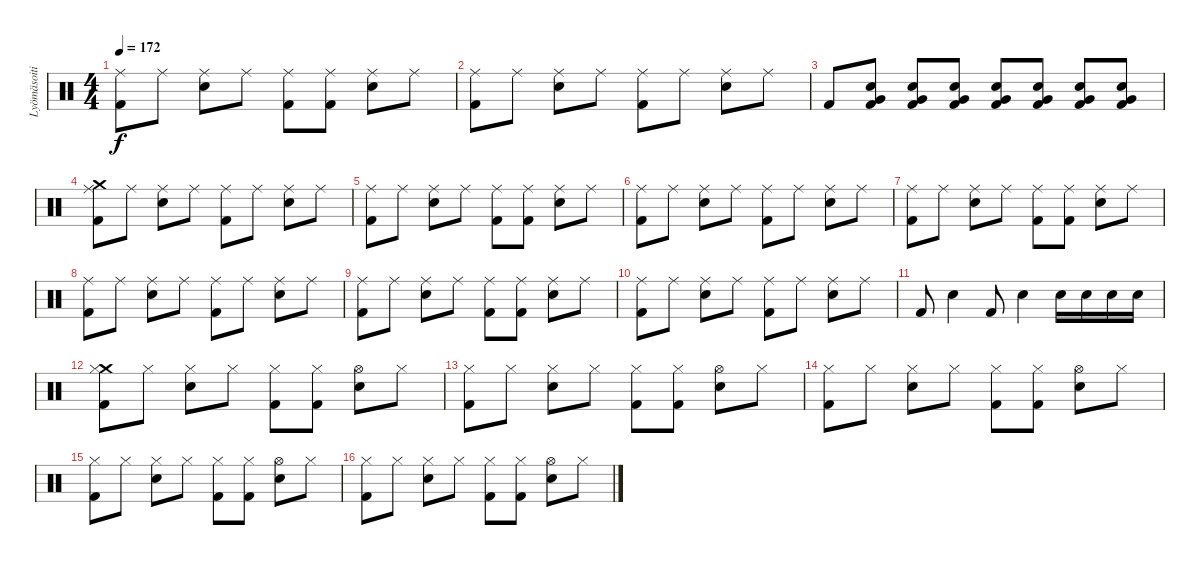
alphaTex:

\track ("Lyömäsoitin" "Lyömäsoiti") {instrument percussion}
\staff {score}
\articulation defaults
\ts (4 4)
\tempo 172
\clef neutral
\ks c
("Ride (middle)" "Kick (hit) 2").8{dy f} "Ride (middle)".8 ("Ride (middle)" "Electric Snare (hit)").8 "Ride (middle)".8 ("Ride (middle)" "Kick (hit) 2").8 ("Ride (middle)" "Kick (hit) 2").8 ("Ride (middle)" "Electric Snare (hit)").8 "Ride (middle)".8 |
("Ride (middle)" "Kick (hit) 2").8 "Ride (middle)".8 ("Ride (middle)" "Electric Snare (hit)").8 "Ride (middle)".8 ("Ride (middle)" "Kick (hit) 2").8 "Ride (middle)".8 ("Ride (middle)" "Electric Snare (hit)").8 "Ride (middle)".8 |
"Kick (hit) 2".8 ("Very Low Tom (hit)" "Electric Snare (hit)" "Kick (hit) 2").8 ("Very Low Tom (hit)" "Electric Snare (hit)" "Kick (hit) 2").8 ("Very Low Tom (hit)" "Electric Snare (hit)" "Kick (hit) 2").8 ("Very Low Tom (hit)" "Electric Snare (hit)" "Kick (hit) 2").8 ("Very Low Tom (hit)" "Electric Snare (hit)" "Kick (hit) 2").8 ("Very Low Tom (hit)" "Electric Snare (hit)" "Kick (hit) 2").8 ("Very Low Tom (hit)" "Electric Snare (hit)" "Kick (hit) 2").8 |
("Crash medium (hit)" "Ride (middle)" "Kick (hit) 2").8 "Ride (middle)".8 ("Ride (middle)" "Electric Snare (hit)").8 "Ride (middle)".8 ("Ride (middle)" "Kick (hit) 2").8 "Ride (middle)".8 ("Ride (middle)" "Electric Snare (hit)").8 "Ride (middle)".8 |
("Ride (middle)" "Kick (hit) 2").8 "Ride (middle)".8 ("Ride (middle)" "Electric Snare (hit)").8 "Ride (middle)".8 ("Ride (middle)" "Kick (hit) 2").8 ("Ride (middle)" "Kick (hit) 2").8 ("Ride (middle)" "Electric Snare (hit)").8 "Ride (middle)".8 |
("Ride (middle)" "Kick (hit) 2").8 "Ride (middle)".8 ("Ride (middle)" "Electric Snare (hit)").8 "Ride (middle)".8 ("Ride (middle)" "Kick (hit) 2").8 "Ride (middle)".8 ("Ride (middle)" "Electric Snare (hit)").8 "Ride (middle)".8 |
("Ride (middle)" "Kick (hit) 2").8 "Ride (middle)".8 ("Ride (middle)" "Electric Snare (hit)").8 "Ride (middle)".8 ("Ride (middle)" "Kick (hit) 2").8 ("Ride (middle)" "Kick (hit) 2").8 ("Ride (middle)" "Electric Snare (hit)").8 "Ride (middle)".8 |
("Ride (middle)" "Kick (hit) 2").8 "Ride (middle)".8 ("Ride (middle)" "Electric Snare (hit)").8 "Ride (middle)".8 ("Ride (middle)" "Kick (hit) 2").8 "Ride (middle)".8 ("Ride (middle)" "Electric Snare (hit)").8 "Ride (middle)".8 |
("Ride (middle)" "Kick (hit) 2").8 "Ride (middle)".8 ("Ride (middle)" "Electric Snare (hit)").8 "Ride (middle)".8 ("Ride (middle)" "Kick (hit) 2").8 ("Ride (middle)" "Kick (hit) 2").8 ("Ride (middle)" "Electric Snare (hit)").8 "Ride (middle)".8 |
("Ride (middle)" "Kick (hit) 2").8 "Ride (middle)".8 ("Ride (middle)" "Electric Snare (hit)").8 "Ride (middle)".8 ("Ride (middle)" "Kick (hit) 2").8 "Ride (middle)".8 ("Ride (middle)" "Electric Snare (hit)").8 "Ride (middle)".8 |
"Kick (hit) 2".8 "Electric Snare (hit)".4 "Kick (hit) 2".8 "Electric Snare (hit)".4 "Electric Snare (hit)".16 "Electric Snare (hit)".16 "Electric Snare (hit)".16 "Electric Snare (hit)".16 |
("Crash medium (hit)" "Hi-Hat (closed)" "Kick (hit) 2").8 "Hi-Hat (closed)".8 ("Hi-Hat (closed)" "Electric Snare (hit)").8 "Hi-Hat (closed)".8 ("Hi-Hat (closed)" "Kick (hit) 2").8 ("Hi-Hat (closed)" "Kick (hit) 2").8 ("Hi-Hat (open)" "Electric Snare (hit)").8 "Hi-Hat (closed)".8 |
("Hi-Hat (closed)" "Kick (hit) 2").8 "Hi-Hat (closed)".8 ("Hi-Hat (closed)" "Electric Snare (hit)").8 "Hi-Hat (closed)".8 ("Hi-Hat (closed)" "Kick (hit) 2").8 ("Hi-Hat (closed)" "Kick (hit) 2").8 ("Hi-Hat (open)" "Electric Snare (hit)").8 "Hi-Hat (closed)".8 |
("Hi-Hat (closed)" "Kick (hit) 2").8 "Hi-Hat (closed)".8 ("Hi-Hat (closed)" "Electric Snare (hit)").8 "Hi-Hat (closed)".8 ("Hi-Hat (closed)" "Kick (hit) 2").8 ("Hi-Hat (closed)" "Kick (hit) 2").8 ("Hi-Hat (open)" "Electric Snare (hit)").8 "Hi-Hat (closed)".8 |
("Hi-Hat (closed)" "Kick (hit) 2").8 "Hi-Hat (closed)".8 ("Hi-Hat (closed)" "Electric Snare (hit)").8 "Hi-Hat (closed)".8 ("Hi-Hat (closed)" "Kick (hit) 2").8 ("Hi-Hat (closed)" "Kick (hit) 2").8 ("Hi-Hat (open)" "Electric Snare (hit)").8 "Hi-Hat (closed)".8 |
("Hi-Hat (closed)" "Kick (hit) 2").8 "Hi-Hat (closed)".8 ("Hi-Hat (closed)" "Electric Snare (hit)").8 "Hi-Hat (closed)".8 ("Hi-Hat (closed)" "Kick (hit) 2").8 ("Hi-Hat (closed)" "Kick (hit) 2").8 ("Hi-Hat (open)" "Electric Snare (hit)").8 "Hi-Hat (closed)".8
